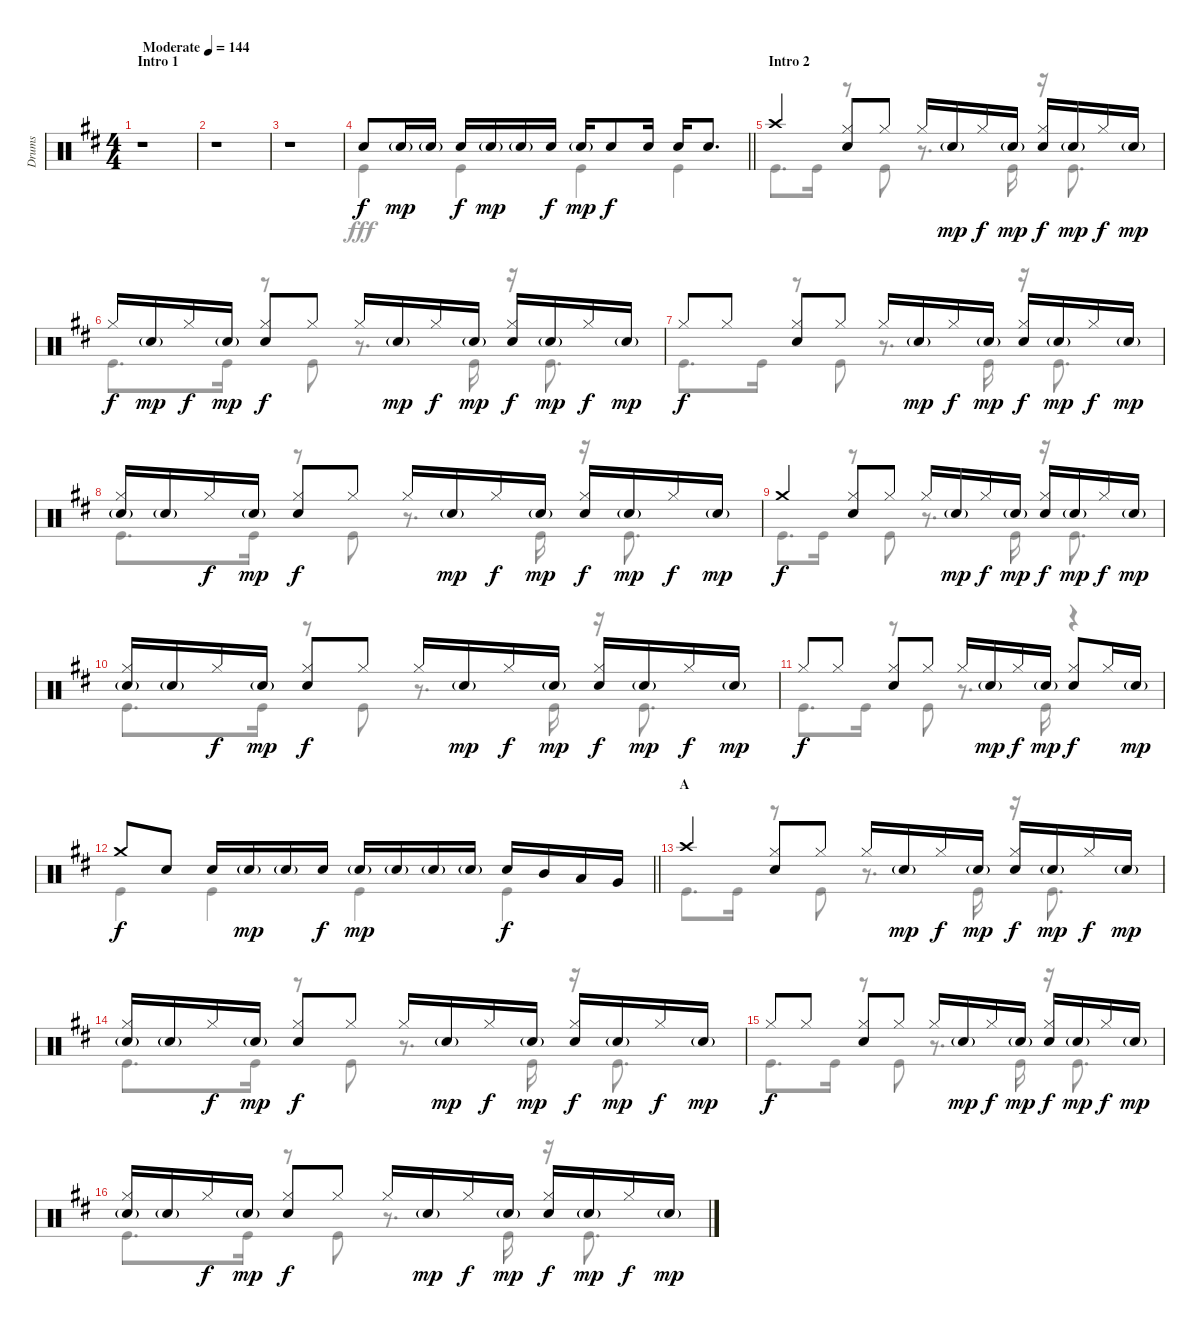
\track ("Drums" "Drums") {instrument percussion}
\staff {score}
\articulation defaults
\voice
\ts (4 4)
\section ("" "Intro 1")
\tempo (144 "Moderate")
\clef neutral
\ks d
r.1{dy f} |
r.1 |
r.1 |
\barLineRight lightlight "Snare (hit) 2".8 "Snare (hit) 2"{g}.16{dy mp} "Snare (hit) 2"{g}.16 "Snare (hit) 2".16{dy f} "Snare (hit) 2"{g}.16{dy mp} "Snare (hit) 2"{g}.16 "Snare (hit) 2".16{dy f} "Snare (hit) 2"{g}.16{dy mp} "Snare (hit) 2".8{dy f} "Snare (hit) 2".16 "Snare (hit) 2".16 "Snare (hit) 2".8{d}
|
\section ("" "Intro 2")
"Crash high (hit)".4 ("Hi-Hat (closed)" "Snare (hit) 2").8 "Hi-Hat (closed)".8 "Hi-Hat (closed)".16 "Snare (hit) 2"{g}.16{dy mp} "Hi-Hat (closed)".16{dy f} "Snare (hit) 2"{g}.16{dy mp} ("Hi-Hat (closed)" "Snare (hit) 2").16{dy f} "Snare (hit) 2"{g}.16{dy mp} "Hi-Hat (closed)".16{dy f} "Snare (hit) 2"{g}.16{dy mp} |
"Hi-Hat (closed)".16{dy f} "Snare (hit) 2"{g}.16{dy mp} "Hi-Hat (closed)".16{dy f} "Snare (hit) 2"{g}.16{dy mp} ("Hi-Hat (closed)" "Snare (hit) 2").8{dy f} "Hi-Hat (closed)".8 "Hi-Hat (closed)".16 "Snare (hit) 2"{g}.16{dy mp} "Hi-Hat (closed)".16{dy f} "Snare (hit) 2"{g}.16{dy mp} ("Hi-Hat (closed)" "Snare (hit) 2").16{dy f} "Snare (hit) 2"{g}.16{dy mp} "Hi-Hat (closed)".16{dy f} "Snare (hit) 2"{g}.16{dy mp} |
"Hi-Hat (closed)".8{dy f} "Hi-Hat (closed)".8 ("Hi-Hat (closed)" "Snare (hit) 2").8 "Hi-Hat (closed)".8 "Hi-Hat (closed)".16 "Snare (hit) 2"{g}.16{dy mp} "Hi-Hat (closed)".16{dy f} "Snare (hit) 2"{g}.16{dy mp} ("Hi-Hat (closed)" "Snare (hit) 2").16{dy f} "Snare (hit) 2"{g}.16{dy mp} "Hi-Hat (closed)".16{dy f} "Snare (hit) 2"{g}.16{dy mp} |
("Hi-Hat (closed)" "Snare (hit) 2"{g}).16 "Snare (hit) 2"{g}.16 "Hi-Hat (closed)".16{dy f} "Snare (hit) 2"{g}.16{dy mp} ("Hi-Hat (closed)" "Snare (hit) 2").8{dy f} "Hi-Hat (closed)".8 "Hi-Hat (closed)".16 "Snare (hit) 2"{g}.16{dy mp} "Hi-Hat (closed)".16{dy f} "Snare (hit) 2"{g}.16{dy mp} ("Hi-Hat (closed)" "Snare (hit) 2").16{dy f} "Snare (hit) 2"{g}.16{dy mp} "Hi-Hat (closed)".16{dy f} "Snare (hit) 2"{g}.16{dy mp} |
"Crash medium (hit)".4{dy f} ("Hi-Hat (closed)" "Snare (hit) 2").8 "Hi-Hat (closed)".8 "Hi-Hat (closed)".16 "Snare (hit) 2"{g}.16{dy mp} "Hi-Hat (closed)".16{dy f} "Snare (hit) 2"{g}.16{dy mp} ("Hi-Hat (closed)" "Snare (hit) 2").16{dy f} "Snare (hit) 2"{g}.16{dy mp} "Hi-Hat (closed)".16{dy f} "Snare (hit) 2"{g}.16{dy mp} |
("Hi-Hat (closed)" "Snare (hit) 2"{g}).16 "Snare (hit) 2"{g}.16 "Hi-Hat (closed)".16{dy f} "Snare (hit) 2"{g}.16{dy mp} ("Hi-Hat (closed)" "Snare (hit) 2").8{dy f} "Hi-Hat (closed)".8 "Hi-Hat (closed)".16 "Snare (hit) 2"{g}.16{dy mp} "Hi-Hat (closed)".16{dy f} "Snare (hit) 2"{g}.16{dy mp} ("Hi-Hat (closed)" "Snare (hit) 2").16{dy f} "Snare (hit) 2"{g}.16{dy mp} "Hi-Hat (closed)".16{dy f} "Snare (hit) 2"{g}.16{dy mp} |
"Hi-Hat (closed)".8{dy f} "Hi-Hat (closed)".8 ("Hi-Hat (closed)" "Snare (hit) 2").8 "Hi-Hat (closed)".8 "Hi-Hat (closed)".16 "Snare (hit) 2"{g}.16{dy mp} "Hi-Hat (closed)".16{dy f} "Snare (hit) 2"{g}.16{dy mp} ("Hi-Hat (closed)" "Snare (hit) 2").8{dy f} "Hi-Hat (closed)".16 "Snare (hit) 2"{g}.16{dy mp} |
\barLineRight lightlight "Crash medium (hit)".8{dy f} "Snare (hit) 2".8 "Snare (hit) 2".16 "Snare (hit) 2"{g}.16{dy mp} "Snare (hit) 2"{g}.16 "Snare (hit) 2".16{dy f} "Snare (hit) 2"{g}.16{dy mp} "Snare (hit) 2"{g}.16 "Snare (hit) 2"{g}.16 "Snare (hit) 2"{g}.16 "Snare (hit) 2".16{dy f} "Mid Tom (hit)".16 "Low Tom (hit)".16 "Very Low Tom (hit)".16
|
\section ("" "A")
"Crash high (hit)".4 ("Hi-Hat (closed)" "Snare (hit) 2").8 "Hi-Hat (closed)".8 "Hi-Hat (closed)".16 "Snare (hit) 2"{g}.16{dy mp} "Hi-Hat (closed)".16{dy f} "Snare (hit) 2"{g}.16{dy mp} ("Hi-Hat (closed)" "Snare (hit) 2").16{dy f} "Snare (hit) 2"{g}.16{dy mp} "Hi-Hat (closed)".16{dy f} "Snare (hit) 2"{g}.16{dy mp} |
("Hi-Hat (closed)" "Snare (hit) 2"{g}).16 "Snare (hit) 2"{g}.16 "Hi-Hat (closed)".16{dy f} "Snare (hit) 2"{g}.16{dy mp} ("Hi-Hat (closed)" "Snare (hit) 2").8{dy f} "Hi-Hat (closed)".8 "Hi-Hat (closed)".16 "Snare (hit) 2"{g}.16{dy mp} "Hi-Hat (closed)".16{dy f} "Snare (hit) 2"{g}.16{dy mp} ("Hi-Hat (closed)" "Snare (hit) 2").16{dy f} "Snare (hit) 2"{g}.16{dy mp} "Hi-Hat (closed)".16{dy f} "Snare (hit) 2"{g}.16{dy mp} |
"Hi-Hat (closed)".8{dy f} "Hi-Hat (closed)".8 ("Hi-Hat (closed)" "Snare (hit) 2").8 "Hi-Hat (closed)".8 "Hi-Hat (closed)".16 "Snare (hit) 2"{g}.16{dy mp} "Hi-Hat (closed)".16{dy f} "Snare (hit) 2"{g}.16{dy mp} ("Hi-Hat (closed)" "Snare (hit) 2").16{dy f} "Snare (hit) 2"{g}.16{dy mp} "Hi-Hat (closed)".16{dy f} "Snare (hit) 2"{g}.16{dy mp} |
("Hi-Hat (closed)" "Snare (hit) 2"{g}).16 "Snare (hit) 2"{g}.16 "Hi-Hat (closed)".16{dy f} "Snare (hit) 2"{g}.16{dy mp} ("Hi-Hat (closed)" "Snare (hit) 2").8{dy f} "Hi-Hat (closed)".8 "Hi-Hat (closed)".16 "Snare (hit) 2"{g}.16{dy mp} "Hi-Hat (closed)".16{dy f} "Snare (hit) 2"{g}.16{dy mp} ("Hi-Hat (closed)" "Snare (hit) 2").16{dy f} "Snare (hit) 2"{g}.16{dy mp} "Hi-Hat (closed)".16{dy f} "Snare (hit) 2"{g}.16{dy mp}
\voice
\clef neutral
\ottava regular
\simile none
\ks d
r.1{dy fff} |
r.1 |
r.1 |
\barLineRight lightlight "Kick (hit)".4 "Kick (hit)".4 "Kick (hit)".4 "Kick (hit)".4
|
"Kick (hit)".8{d} "Kick (hit)".16 r.8 "Kick (hit)".8 r.8{d} "Kick (hit)".16 r.16 "Kick (hit)".8{d} |
"Kick (hit)".8{d} "Kick (hit)".16 r.8 "Kick (hit)".8 r.8{d} "Kick (hit)".16 r.16 "Kick (hit)".8{d} |
"Kick (hit)".8{d} "Kick (hit)".16 r.8 "Kick (hit)".8 r.8{d} "Kick (hit)".16 r.16 "Kick (hit)".8{d} |
"Kick (hit)".8{d} "Kick (hit)".16 r.8 "Kick (hit)".8 r.8{d} "Kick (hit)".16 r.16 "Kick (hit)".8{d} |
"Kick (hit)".8{d} "Kick (hit)".16 r.8 "Kick (hit)".8 r.8{d} "Kick (hit)".16 r.16 "Kick (hit)".8{d} |
"Kick (hit)".8{d} "Kick (hit)".16 r.8 "Kick (hit)".8 r.8{d} "Kick (hit)".16 r.16 "Kick (hit)".8{d} |
"Kick (hit)".8{d} "Kick (hit)".16 r.8 "Kick (hit)".8 r.8{d} "Kick (hit)".16 r.4 |
\barLineRight lightlight "Kick (hit)".4 "Kick (hit)".4 "Kick (hit)".4 "Kick (hit)".4
|
"Kick (hit)".8{d} "Kick (hit)".16 r.8 "Kick (hit)".8 r.8{d} "Kick (hit)".16 r.16 "Kick (hit)".8{d} |
"Kick (hit)".8{d} "Kick (hit)".16 r.8 "Kick (hit)".8 r.8{d} "Kick (hit)".16 r.16 "Kick (hit)".8{d} |
"Kick (hit)".8{d} "Kick (hit)".16 r.8 "Kick (hit)".8 r.8{d} "Kick (hit)".16 r.16 "Kick (hit)".8{d} |
"Kick (hit)".8{d} "Kick (hit)".16 r.8 "Kick (hit)".8 r.8{d} "Kick (hit)".16 r.16 "Kick (hit)".8{d}
